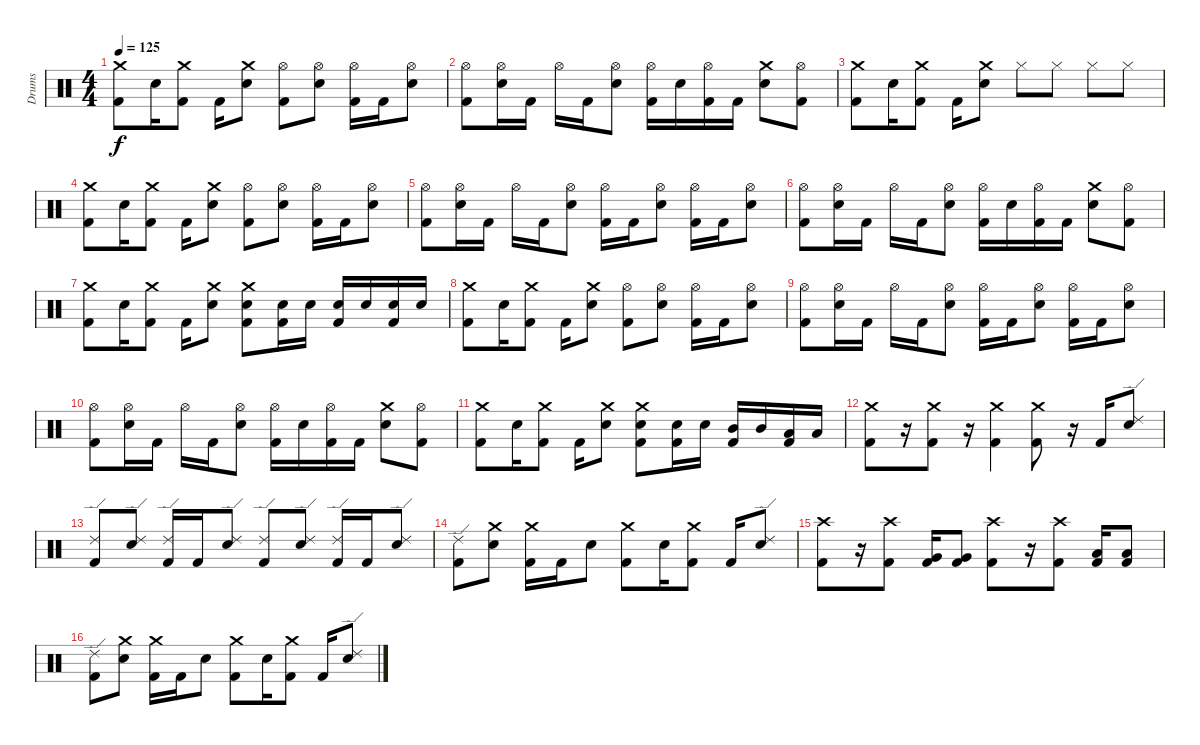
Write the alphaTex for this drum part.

\track ("Drums" "Drums") {instrument percussion}
\staff {score}
\articulation defaults
\ts (4 4)
\tempo 125
\clef neutral
\ks c
("Crash medium (hit)" "Kick (hit) 2").8{dy f} "Snare (hit) 2".16 ("Crash medium (hit)" "Kick (hit) 2").8 "Kick (hit) 2".16 ("Crash medium (hit)" "Snare (hit) 2").8 ("Hi-Hat (open)" "Kick (hit) 2").8 ("Snare (hit) 2" "Hi-Hat (open)").8 ("Hi-Hat (open)" "Kick (hit) 2").16 "Kick (hit) 2".16 ("Snare (hit) 2" "Hi-Hat (open)").8 |
("Hi-Hat (open)" "Kick (hit) 2").8 ("Snare (hit) 2" "Hi-Hat (open)").16 "Kick (hit) 2".16 "Hi-Hat (open)".16 "Kick (hit) 2".16 ("Snare (hit) 2" "Hi-Hat (open)").8 ("Hi-Hat (open)" "Kick (hit) 2").16 "Snare (hit) 2".16 ("Hi-Hat (open)" "Kick (hit) 2").16 "Kick (hit) 2".16 ("Crash medium (hit)" "Snare (hit) 2").8 ("Hi-Hat (open)" "Kick (hit) 2").8 |
("Crash medium (hit)" "Kick (hit) 2").8 "Snare (hit) 2".16 ("Crash medium (hit)" "Kick (hit) 2").8 "Kick (hit) 2".16 ("Crash medium (hit)" "Snare (hit) 2").8 "Hi-Hat (closed)".8 "Hi-Hat (closed)".8 "Hi-Hat (closed)".8 "Hi-Hat (closed)".8 |
("Crash medium (hit)" "Kick (hit) 2").8 "Snare (hit) 2".16 ("Crash medium (hit)" "Kick (hit) 2").8 "Kick (hit) 2".16 ("Crash medium (hit)" "Snare (hit) 2").8 ("Hi-Hat (open)" "Kick (hit) 2").8 ("Snare (hit) 2" "Hi-Hat (open)").8 ("Hi-Hat (open)" "Kick (hit) 2").16 "Kick (hit) 2".16 ("Snare (hit) 2" "Hi-Hat (open)").8 |
("Hi-Hat (open)" "Kick (hit) 2").8 ("Snare (hit) 2" "Hi-Hat (open)").16 "Kick (hit) 2".16 "Hi-Hat (open)".16 "Kick (hit) 2".16 ("Snare (hit) 2" "Hi-Hat (open)").8 ("Hi-Hat (open)" "Kick (hit) 2").16 "Kick (hit) 2".16 ("Snare (hit) 2" "Hi-Hat (open)").8 ("Hi-Hat (open)" "Kick (hit) 2").16 "Kick (hit) 2".16 ("Snare (hit) 2" "Hi-Hat (open)").8 |
("Hi-Hat (open)" "Kick (hit) 2").8 ("Snare (hit) 2" "Hi-Hat (open)").16 "Kick (hit) 2".16 "Hi-Hat (open)".16 "Kick (hit) 2".16 ("Snare (hit) 2" "Hi-Hat (open)").8 ("Hi-Hat (open)" "Kick (hit) 2").16 "Snare (hit) 2".16 ("Hi-Hat (open)" "Kick (hit) 2").16 "Kick (hit) 2".16 ("Crash medium (hit)" "Snare (hit) 2").8 ("Hi-Hat (open)" "Kick (hit) 2").8 |
("Crash medium (hit)" "Kick (hit) 2").8 "Snare (hit) 2".16 ("Crash medium (hit)" "Kick (hit) 2").8 "Kick (hit) 2".16 ("Crash medium (hit)" "Snare (hit) 2").8 ("Crash medium (hit)" "Snare (hit) 2" "Kick (hit) 2").8 ("Snare (hit) 2" "Kick (hit) 2").16 "Snare (hit) 2".16 ("Snare (hit) 2" "Kick (hit) 2").16 "Snare (hit) 2".16 ("Snare (hit) 2" "Kick (hit) 2").16 "Snare (hit) 2".16 |
("Crash medium (hit)" "Kick (hit) 2").8 "Snare (hit) 2".16 ("Crash medium (hit)" "Kick (hit) 2").8 "Kick (hit) 2".16 ("Crash medium (hit)" "Snare (hit) 2").8 ("Hi-Hat (open)" "Kick (hit) 2").8 ("Snare (hit) 2" "Hi-Hat (open)").8 ("Hi-Hat (open)" "Kick (hit) 2").16 "Kick (hit) 2".16 ("Snare (hit) 2" "Hi-Hat (open)").8 |
("Hi-Hat (open)" "Kick (hit) 2").8 ("Snare (hit) 2" "Hi-Hat (open)").16 "Kick (hit) 2".16 "Hi-Hat (open)".16 "Kick (hit) 2".16 ("Snare (hit) 2" "Hi-Hat (open)").8 ("Hi-Hat (open)" "Kick (hit) 2").16 "Kick (hit) 2".16 ("Snare (hit) 2" "Hi-Hat (open)").8 ("Hi-Hat (open)" "Kick (hit) 2").16 "Kick (hit) 2".16 ("Snare (hit) 2" "Hi-Hat (open)").8 |
("Hi-Hat (open)" "Kick (hit) 2").8 ("Snare (hit) 2" "Hi-Hat (open)").16 "Kick (hit) 2".16 "Hi-Hat (open)".16 "Kick (hit) 2".16 ("Snare (hit) 2" "Hi-Hat (open)").8 ("Hi-Hat (open)" "Kick (hit) 2").16 "Snare (hit) 2".16 ("Hi-Hat (open)" "Kick (hit) 2").16 "Kick (hit) 2".16 ("Crash medium (hit)" "Snare (hit) 2").8 ("Hi-Hat (open)" "Kick (hit) 2").8 |
("Crash medium (hit)" "Kick (hit) 2").8 "Snare (hit) 2".16 ("Crash medium (hit)" "Kick (hit) 2").8 "Kick (hit) 2".16 ("Crash medium (hit)" "Snare (hit) 2").8 ("Crash medium (hit)" "Snare (hit) 2" "Kick (hit) 2").8 ("Snare (hit) 2" "Kick (hit) 2").16 "Snare (hit) 2".16 ("Mid Tom (hit)" "Kick (hit) 2").16 "Mid Tom (hit)".16 ("Low Tom (hit)" "Kick (hit) 2").16 "Low Tom (hit)".16 |
("Crash medium (hit)" "Kick (hit) 2").8 r.16 ("Crash medium (hit)" "Kick (hit) 2").8 r.16 ("Crash medium (hit)" "Kick (hit) 2").4 ("Crash medium (hit)" "Kick (hit) 2").8 r.16 "Kick (hit) 2".16 ("Snare (hit) 2" "Ride (edge) 2").8 |
("Ride (edge) 2" "Kick (hit) 2").8 ("Snare (hit) 2" "Ride (edge) 2").8 ("Ride (edge) 2" "Kick (hit) 2").16 "Kick (hit) 2".16 ("Snare (hit) 2" "Ride (edge) 2").8 ("Ride (edge) 2" "Kick (hit) 2").8 ("Snare (hit) 2" "Ride (edge) 2").8 ("Ride (edge) 2" "Kick (hit) 2").16 "Kick (hit) 2".16 ("Snare (hit) 2" "Ride (edge) 2").8 |
("Ride (edge) 2" "Kick (hit) 2").8 ("Crash medium (hit)" "Snare (hit) 2").8 ("Crash medium (hit)" "Kick (hit) 2").16 "Kick (hit) 2".16 "Snare (hit) 2".8 ("Crash medium (hit)" "Kick (hit) 2").8 "Snare (hit) 2".16 ("Crash medium (hit)" "Kick (hit) 2").8 "Kick (hit) 2".16 ("Snare (hit) 2" "Ride (edge) 2").8 |
("Crash high (hit)" "Kick (hit) 2").8 r.16 ("Crash high (hit)" "Kick (hit) 2").8 ("Very Low Tom (hit)" "Kick (hit) 2").16 ("Very Low Tom (hit)" "Kick (hit) 2").8 ("Crash high (hit)" "Kick (hit) 2").8 r.16 ("Crash high (hit)" "Kick (hit) 2").8 ("Low Floor Tom (hit)" "Kick (hit) 2").16 ("Low Floor Tom (hit)" "Kick (hit) 2").8 |
("Ride (edge) 2" "Kick (hit) 2").8 ("Crash medium (hit)" "Snare (hit) 2").8 ("Crash medium (hit)" "Kick (hit) 2").16 "Kick (hit) 2".16 "Snare (hit) 2".8 ("Crash medium (hit)" "Kick (hit) 2").8 "Snare (hit) 2".16 ("Crash medium (hit)" "Kick (hit) 2").8 "Kick (hit) 2".16 ("Snare (hit) 2" "Ride (edge) 2").8
